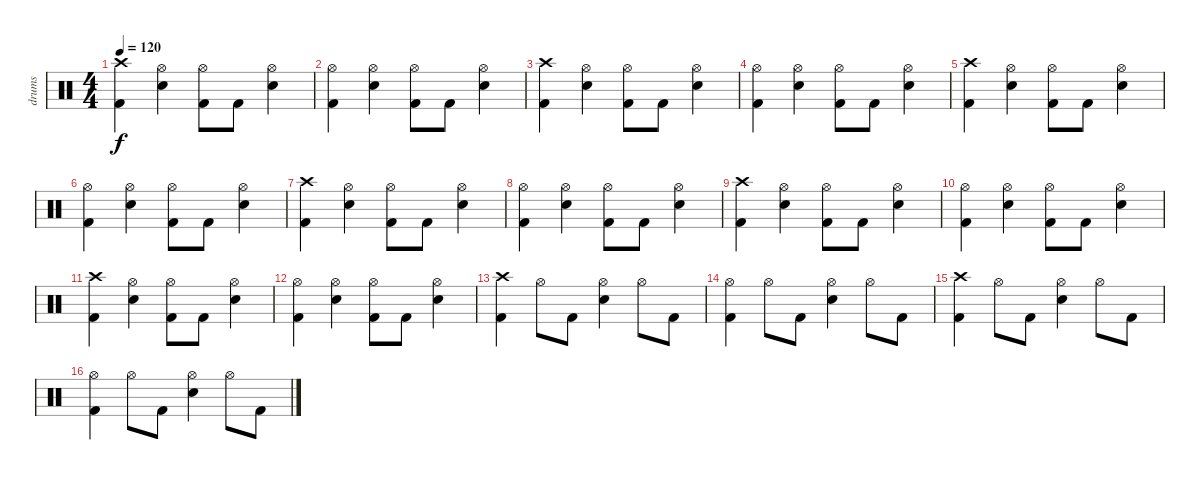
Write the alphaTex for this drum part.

\track ("drums" "drums") {instrument percussion}
\staff {score}
\articulation defaults
\ts (4 4)
\tempo 120
\clef neutral
\ks c
("Crash high (hit)" "Kick (hit) 2").4{dy f} ("Hi-Hat (open)" "Snare (hit) 2").4 ("Hi-Hat (open)" "Kick (hit) 2").8 "Kick (hit) 2".8 ("Hi-Hat (open)" "Snare (hit) 2").4 |
("Hi-Hat (open)" "Kick (hit) 2").4 ("Hi-Hat (open)" "Snare (hit) 2").4 ("Hi-Hat (open)" "Kick (hit) 2").8 "Kick (hit) 2".8 ("Hi-Hat (open)" "Snare (hit) 2").4 |
("Crash high (hit)" "Kick (hit) 2").4 ("Hi-Hat (open)" "Snare (hit) 2").4 ("Hi-Hat (open)" "Kick (hit) 2").8 "Kick (hit) 2".8 ("Hi-Hat (open)" "Snare (hit) 2").4 |
("Hi-Hat (open)" "Kick (hit) 2").4 ("Hi-Hat (open)" "Snare (hit) 2").4 ("Hi-Hat (open)" "Kick (hit) 2").8 "Kick (hit) 2".8 ("Hi-Hat (open)" "Snare (hit) 2").4 |
("Crash high (hit)" "Kick (hit) 2").4 ("Hi-Hat (open)" "Snare (hit) 2").4 ("Hi-Hat (open)" "Kick (hit) 2").8 "Kick (hit) 2".8 ("Hi-Hat (open)" "Snare (hit) 2").4 |
("Hi-Hat (open)" "Kick (hit) 2").4 ("Hi-Hat (open)" "Snare (hit) 2").4 ("Hi-Hat (open)" "Kick (hit) 2").8 "Kick (hit) 2".8 ("Hi-Hat (open)" "Snare (hit) 2").4 |
("Crash high (hit)" "Kick (hit) 2").4 ("Hi-Hat (open)" "Snare (hit) 2").4 ("Hi-Hat (open)" "Kick (hit) 2").8 "Kick (hit) 2".8 ("Hi-Hat (open)" "Snare (hit) 2").4 |
("Hi-Hat (open)" "Kick (hit) 2").4 ("Hi-Hat (open)" "Snare (hit) 2").4 ("Hi-Hat (open)" "Kick (hit) 2").8 "Kick (hit) 2".8 ("Hi-Hat (open)" "Snare (hit) 2").4 |
("Crash high (hit)" "Kick (hit) 2").4 ("Hi-Hat (open)" "Snare (hit) 2").4 ("Hi-Hat (open)" "Kick (hit) 2").8 "Kick (hit) 2".8 ("Hi-Hat (open)" "Snare (hit) 2").4 |
("Hi-Hat (open)" "Kick (hit) 2").4 ("Hi-Hat (open)" "Snare (hit) 2").4 ("Hi-Hat (open)" "Kick (hit) 2").8 "Kick (hit) 2".8 ("Hi-Hat (open)" "Snare (hit) 2").4 |
("Crash high (hit)" "Kick (hit) 2").4 ("Hi-Hat (open)" "Snare (hit) 2").4 ("Hi-Hat (open)" "Kick (hit) 2").8 "Kick (hit) 2".8 ("Hi-Hat (open)" "Snare (hit) 2").4 |
("Hi-Hat (open)" "Kick (hit) 2").4 ("Hi-Hat (open)" "Snare (hit) 2").4 ("Hi-Hat (open)" "Kick (hit) 2").8 "Kick (hit) 2".8 ("Hi-Hat (open)" "Snare (hit) 2").4 |
("Crash high (hit)" "Kick (hit) 2").4 "Hi-Hat (open)".8 "Kick (hit) 2".8 ("Hi-Hat (open)" "Snare (hit) 2").4 "Hi-Hat (open)".8 "Kick (hit) 2".8 |
("Hi-Hat (open)" "Kick (hit) 2").4 "Hi-Hat (open)".8 "Kick (hit) 2".8 ("Hi-Hat (open)" "Snare (hit) 2").4 "Hi-Hat (open)".8 "Kick (hit) 2".8 |
("Crash high (hit)" "Kick (hit) 2").4 "Hi-Hat (open)".8 "Kick (hit) 2".8 ("Hi-Hat (open)" "Snare (hit) 2").4 "Hi-Hat (open)".8 "Kick (hit) 2".8 |
("Hi-Hat (open)" "Kick (hit) 2").4 "Hi-Hat (open)".8 "Kick (hit) 2".8 ("Hi-Hat (open)" "Snare (hit) 2").4 "Hi-Hat (open)".8 "Kick (hit) 2".8
